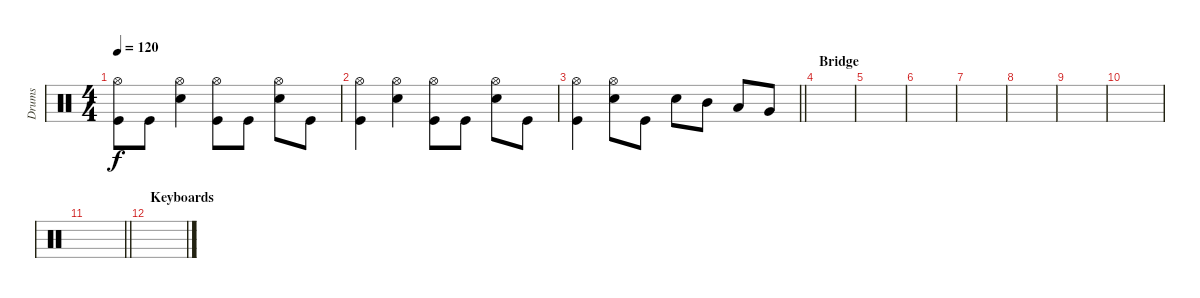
\track ("Drums" "Drums") {instrument percussion}
\staff {score}
\articulation defaults
\ts (4 4)
\tempo 120
\clef neutral
\ks c
("Hi-Hat (open)" "Kick (hit)").8{dy f} "Kick (hit)".8 ("Hi-Hat (open)" "Electric Snare (hit)").4 ("Hi-Hat (open)" "Kick (hit)").8 "Kick (hit)".8 ("Hi-Hat (open)" "Electric Snare (hit)").8 "Kick (hit)".8 |
("Hi-Hat (open)" "Kick (hit)").4 ("Hi-Hat (open)" "Electric Snare (hit)").4 ("Hi-Hat (open)" "Kick (hit)").8 "Kick (hit)".8 ("Hi-Hat (open)" "Electric Snare (hit)").8 "Kick (hit)".8 |
\barLineRight lightlight
("Hi-Hat (open)" "Kick (hit)").4 ("Hi-Hat (open)" "Electric Snare (hit)").8 "Kick (hit)".8 "Electric Snare (hit)".8 "Mid Tom (hit)".8 "Low Tom (hit)".8 "Very Low Tom (hit)".8 |
\section ("" "Bridge")
|
|
|
|
|
|
|
\barLineRight lightlight
|
\section ("" "Keyboards")
